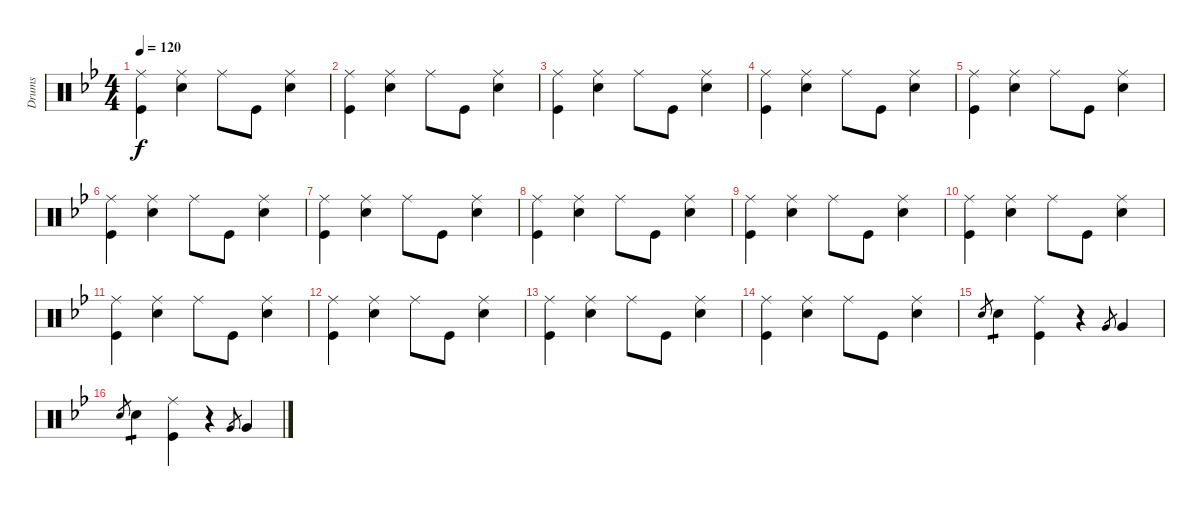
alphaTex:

\track ("Drums" "Drums") {instrument percussion}
\staff {score}
\articulation defaults
\ts (4 4)
\tempo 120
\clef neutral
\ks bb
("Ride (middle)" "Kick (hit)").4{dy f} ("Ride (middle)" "Snare (hit) 2").4 "Ride (middle)".8 "Kick (hit)".8 ("Ride (middle)" "Snare (hit) 2").4 |
("Ride (middle)" "Kick (hit)").4 ("Ride (middle)" "Snare (hit) 2").4 "Ride (middle)".8 "Kick (hit)".8 ("Ride (middle)" "Snare (hit) 2").4 |
("Ride (middle)" "Kick (hit)").4 ("Ride (middle)" "Snare (hit) 2").4 "Ride (middle)".8 "Kick (hit)".8 ("Ride (middle)" "Snare (hit) 2").4 |
("Ride (middle)" "Kick (hit)").4 ("Ride (middle)" "Snare (hit) 2").4 "Ride (middle)".8 "Kick (hit)".8 ("Ride (middle)" "Snare (hit) 2").4 |
("Ride (middle)" "Kick (hit)").4 ("Ride (middle)" "Snare (hit) 2").4 "Ride (middle)".8 "Kick (hit)".8 ("Ride (middle)" "Snare (hit) 2").4 |
("Ride (middle)" "Kick (hit)").4 ("Ride (middle)" "Snare (hit) 2").4 "Ride (middle)".8 "Kick (hit)".8 ("Ride (middle)" "Snare (hit) 2").4 |
("Ride (middle)" "Kick (hit)").4 ("Ride (middle)" "Snare (hit) 2").4 "Ride (middle)".8 "Kick (hit)".8 ("Ride (middle)" "Snare (hit) 2").4 |
("Ride (middle)" "Kick (hit)").4 ("Ride (middle)" "Snare (hit) 2").4 "Ride (middle)".8 "Kick (hit)".8 ("Ride (middle)" "Snare (hit) 2").4 |
("Ride (middle)" "Kick (hit)").4 ("Ride (middle)" "Snare (hit) 2").4 "Ride (middle)".8 "Kick (hit)".8 ("Ride (middle)" "Snare (hit) 2").4 |
("Ride (middle)" "Kick (hit)").4 ("Ride (middle)" "Snare (hit) 2").4 "Ride (middle)".8 "Kick (hit)".8 ("Ride (middle)" "Snare (hit) 2").4 |
("Ride (middle)" "Kick (hit)").4 ("Ride (middle)" "Snare (hit) 2").4 "Ride (middle)".8 "Kick (hit)".8 ("Ride (middle)" "Snare (hit) 2").4 |
("Ride (middle)" "Kick (hit)").4 ("Ride (middle)" "Snare (hit) 2").4 "Ride (middle)".8 "Kick (hit)".8 ("Ride (middle)" "Snare (hit) 2").4 |
("Ride (middle)" "Kick (hit)").4 ("Ride (middle)" "Snare (hit) 2").4 "Ride (middle)".8 "Kick (hit)".8 ("Ride (middle)" "Snare (hit) 2").4 |
("Ride (middle)" "Kick (hit)").4 ("Ride (middle)" "Snare (hit) 2").4 "Ride (middle)".8 "Kick (hit)".8 ("Ride (middle)" "Snare (hit) 2").4 |
"Snare (hit) 2".8{gr} "Snare (hit) 2".4{tp 1} ("Ride (middle)" "Kick (hit)").4 r.4 "Very Low Tom (hit)".8{gr} "Very Low Tom (hit)".4 |
"Snare (hit) 2".8{gr} "Snare (hit) 2".4{tp 1} ("Ride (middle)" "Kick (hit)").4 r.4 "Very Low Tom (hit)".8{gr} "Very Low Tom (hit)".4
